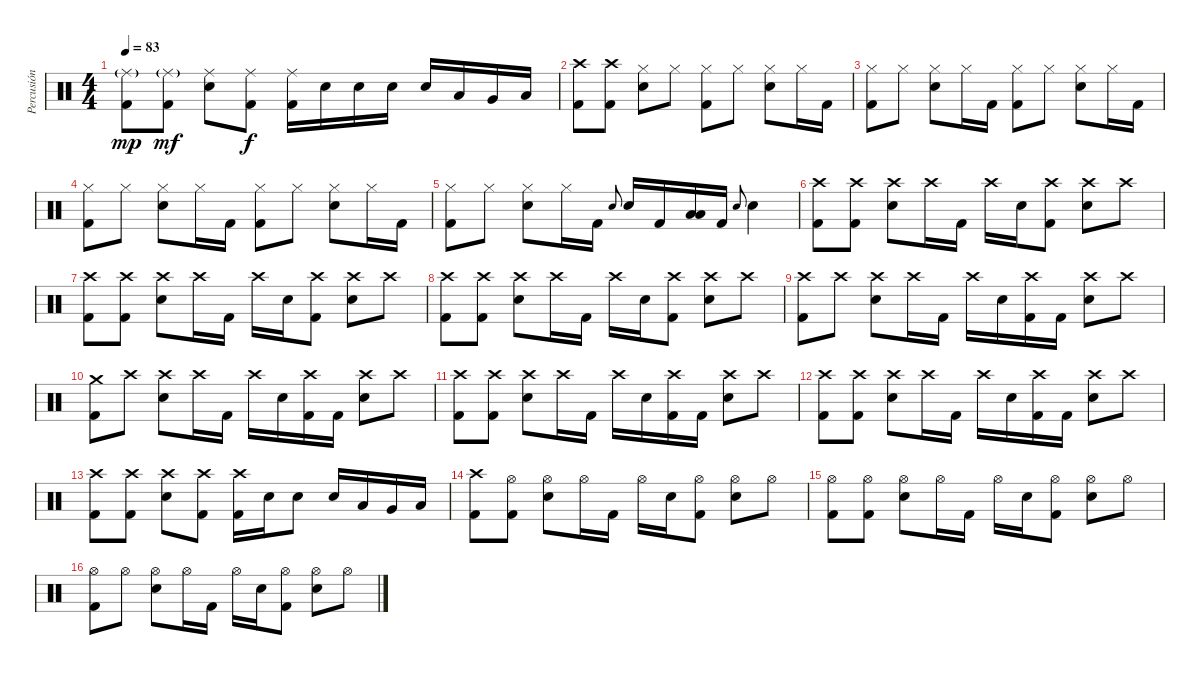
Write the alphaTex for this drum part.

\track ("Percusión" "Percusión") {instrument percussion}
\staff {score}
\articulation defaults
\ts (4 4)
\tempo 83
\clef neutral
\ks c
("Ride (middle)"{g} "Kick (hit) 2").8{dy mp} ("Ride (middle)"{g} "Kick (hit) 2").8{dy mf} ("Ride (middle)" "Snare (hit) 2").8 ("Ride (middle)" "Kick (hit) 2").8{dy f} ("Ride (middle)" "Kick (hit) 2").16 "Snare (hit) 2".16 "Snare (hit) 2".16 "Snare (hit) 2".16 "Snare (hit) 2".16 "Low Tom (hit)".16 "Very Low Tom (hit)".16 "Low Floor Tom (hit)".16 |
("Crash high (hit)" "Kick (hit) 2").8 ("Crash high (hit)" "Kick (hit) 2").8 ("Hi-Hat (closed)" "Snare (hit) 2").8 "Hi-Hat (closed)".8 ("Hi-Hat (closed)" "Kick (hit) 2").8 "Hi-Hat (closed)".8 ("Hi-Hat (closed)" "Snare (hit) 2").8 "Hi-Hat (closed)".16 "Kick (hit) 2".16 |
("Hi-Hat (closed)" "Kick (hit) 2").8 "Hi-Hat (closed)".8 ("Hi-Hat (closed)" "Snare (hit) 2").8 "Hi-Hat (closed)".16 "Kick (hit) 2".16 ("Hi-Hat (closed)" "Kick (hit) 2").8 "Hi-Hat (closed)".8 ("Hi-Hat (closed)" "Snare (hit) 2").8 "Hi-Hat (closed)".16 "Kick (hit) 2".16 |
("Hi-Hat (closed)" "Kick (hit) 2").8 "Hi-Hat (closed)".8 ("Hi-Hat (closed)" "Snare (hit) 2").8 "Hi-Hat (closed)".16 "Kick (hit) 2".16 ("Hi-Hat (closed)" "Kick (hit) 2").8 "Hi-Hat (closed)".8 ("Hi-Hat (closed)" "Snare (hit) 2").8 "Hi-Hat (closed)".16 "Kick (hit) 2".16 |
("Hi-Hat (closed)" "Kick (hit) 2").8 "Hi-Hat (closed)".8 ("Hi-Hat (closed)" "Snare (hit) 2").8 "Hi-Hat (closed)".16 "Kick (hit) 2".16 "Snare (hit) 2".8{gr onbeat} "Snare (hit) 2".16 "Kick (hit) 2".16 ("Low Tom (hit)" "Low Floor Tom (hit)").16 "Kick (hit) 2".16 "Snare (hit) 2".8{gr onbeat} "Snare (hit) 2".4 |
("Crash high (hit)" "Kick (hit) 2").8 ("Crash high (hit)" "Kick (hit) 2").8 ("Crash high (hit)" "Snare (hit) 2").8 "Crash high (hit)".16 "Kick (hit) 2".16 "Crash high (hit)".16 "Snare (hit) 2".16 ("Crash high (hit)" "Kick (hit) 2").8 ("Crash high (hit)" "Snare (hit) 2").8 "Crash high (hit)".8 |
("Crash high (hit)" "Kick (hit) 2").8 ("Crash high (hit)" "Kick (hit) 2").8 ("Crash high (hit)" "Snare (hit) 2").8 "Crash high (hit)".16 "Kick (hit) 2".16 "Crash high (hit)".16 "Snare (hit) 2".16 ("Crash high (hit)" "Kick (hit) 2").8 ("Crash high (hit)" "Snare (hit) 2").8 "Crash high (hit)".8 |
("Crash high (hit)" "Kick (hit) 2").8 ("Crash high (hit)" "Kick (hit) 2").8 ("Crash high (hit)" "Snare (hit) 2").8 "Crash high (hit)".16 "Kick (hit) 2".16 "Crash high (hit)".16 "Snare (hit) 2".16 ("Crash high (hit)" "Kick (hit) 2").8 ("Crash high (hit)" "Snare (hit) 2").8 "Crash high (hit)".8 |
("Crash high (hit)" "Kick (hit) 2").8 "Crash high (hit)".8 ("Crash high (hit)" "Snare (hit) 2").8 "Crash high (hit)".16 "Kick (hit) 2".16 "Crash high (hit)".16 "Snare (hit) 2".16 ("Crash high (hit)" "Kick (hit) 2").16 "Kick (hit) 2".16 ("Crash high (hit)" "Snare (hit) 2").8 "Crash high (hit)".8 |
("Crash medium (hit)" "Kick (hit) 2").8 "Crash high (hit)".8 ("Crash high (hit)" "Snare (hit) 2").8 "Crash high (hit)".16 "Kick (hit) 2".16 "Crash high (hit)".16 "Snare (hit) 2".16 ("Crash high (hit)" "Kick (hit) 2").16 "Kick (hit) 2".16 ("Crash high (hit)" "Snare (hit) 2").8 "Crash high (hit)".8 |
("Crash high (hit)" "Kick (hit) 2").8 ("Crash high (hit)" "Kick (hit) 2").8 ("Crash high (hit)" "Snare (hit) 2").8 "Crash high (hit)".16 "Kick (hit) 2".16 "Crash high (hit)".16 "Snare (hit) 2".16 ("Crash high (hit)" "Kick (hit) 2").16 "Kick (hit) 2".16 ("Crash high (hit)" "Snare (hit) 2").8 "Crash high (hit)".8 |
("Crash high (hit)" "Kick (hit) 2").8 ("Crash high (hit)" "Kick (hit) 2").8 ("Crash high (hit)" "Snare (hit) 2").8 "Crash high (hit)".16 "Kick (hit) 2".16 "Crash high (hit)".16 "Snare (hit) 2".16 ("Crash high (hit)" "Kick (hit) 2").16 "Kick (hit) 2".16 ("Crash high (hit)" "Snare (hit) 2").8 "Crash high (hit)".8 |
("Crash high (hit)" "Kick (hit) 2").8 ("Crash high (hit)" "Kick (hit) 2").8 ("Crash high (hit)" "Snare (hit) 2").8 ("Crash high (hit)" "Kick (hit) 2").8 ("Crash high (hit)" "Kick (hit) 2").16 "Snare (hit) 2".16 "Snare (hit) 2".8 "Snare (hit) 2".16 "Low Tom (hit)".16 "Very Low Tom (hit)".16 "Low Floor Tom (hit)".16 |
("Crash high (hit)" "Kick (hit) 2").8 ("Hi-Hat (open)" "Kick (hit) 2").8 ("Hi-Hat (open)" "Snare (hit) 2").8 "Hi-Hat (open)".16 "Kick (hit) 2".16 "Hi-Hat (open)".16 "Snare (hit) 2".16 ("Hi-Hat (open)" "Kick (hit) 2").8 ("Hi-Hat (open)" "Snare (hit) 2").8 "Hi-Hat (open)".8 |
("Hi-Hat (open)" "Kick (hit) 2").8 ("Hi-Hat (open)" "Kick (hit) 2").8 ("Hi-Hat (open)" "Snare (hit) 2").8 "Hi-Hat (open)".16 "Kick (hit) 2".16 "Hi-Hat (open)".16 "Snare (hit) 2".16 ("Hi-Hat (open)" "Kick (hit) 2").8 ("Hi-Hat (open)" "Snare (hit) 2").8 "Hi-Hat (open)".8 |
("Hi-Hat (open)" "Kick (hit) 2").8 "Hi-Hat (open)".8 ("Hi-Hat (open)" "Snare (hit) 2").8 "Hi-Hat (open)".16 "Kick (hit) 2".16 "Hi-Hat (open)".16 "Snare (hit) 2".16 ("Hi-Hat (open)" "Kick (hit) 2").8 ("Hi-Hat (open)" "Snare (hit) 2").8 "Hi-Hat (open)".8
